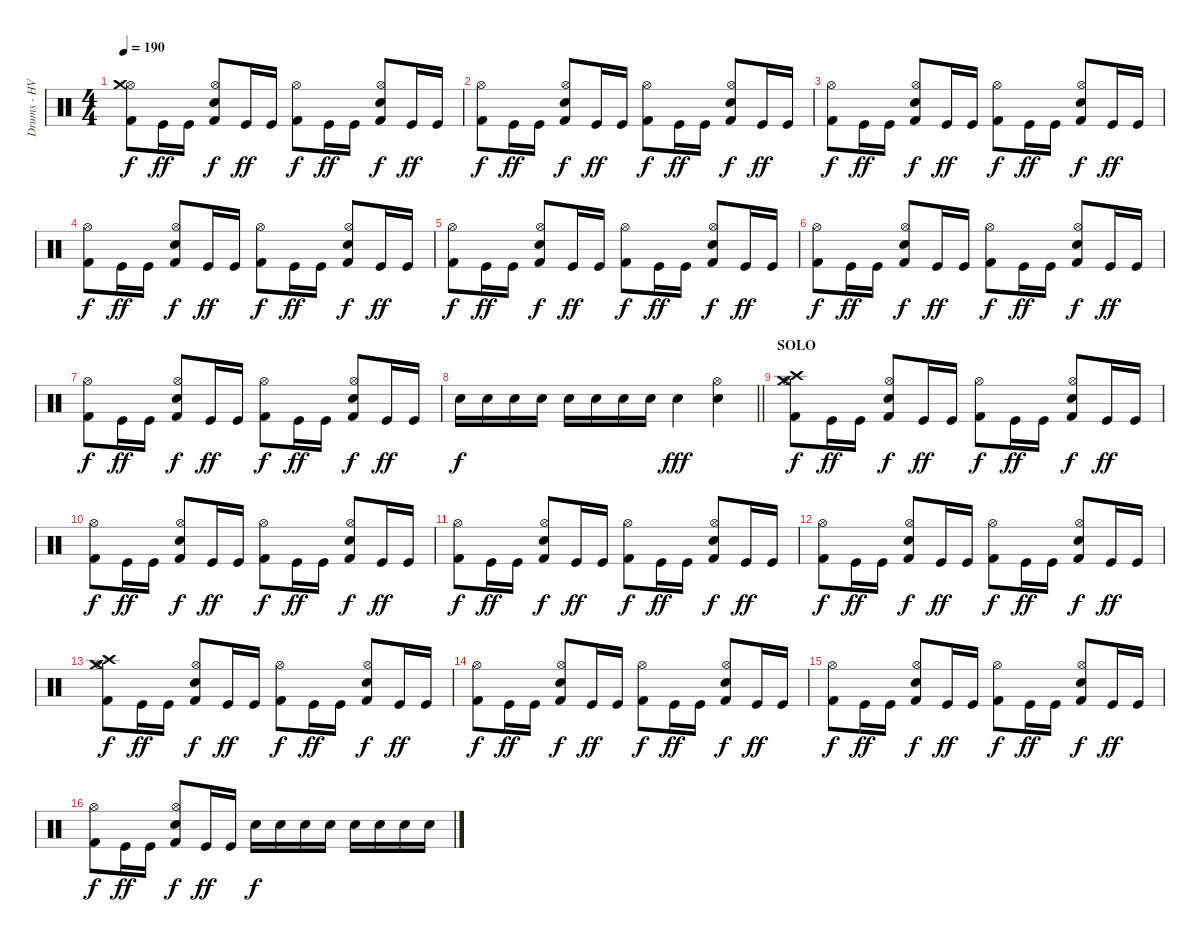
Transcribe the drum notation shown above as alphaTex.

\track ("Drums - HV NikiTon" "Drums - HV") {instrument percussion}
\staff {score}
\articulation defaults
\ts (4 4)
\tempo 190
\clef neutral
\ks c
("Kick (hit) 2" "Hi-Hat (open)" "Crash medium (hit)").8{dy f} "Kick (hit)".16{dy ff} "Kick (hit)".16 ("Electric Snare (hit)" "Kick (hit) 2" "Hi-Hat (open)").8{dy f} "Kick (hit)".16{dy ff} "Kick (hit)".16 ("Kick (hit) 2" "Hi-Hat (open)").8{dy f} "Kick (hit)".16{dy ff} "Kick (hit)".16 ("Electric Snare (hit)" "Kick (hit) 2" "Hi-Hat (open)").8{dy f} "Kick (hit)".16{dy ff} "Kick (hit)".16 |
("Kick (hit) 2" "Hi-Hat (open)").8{dy f} "Kick (hit)".16{dy ff} "Kick (hit)".16 ("Electric Snare (hit)" "Kick (hit) 2" "Hi-Hat (open)").8{dy f} "Kick (hit)".16{dy ff} "Kick (hit)".16 ("Kick (hit) 2" "Hi-Hat (open)").8{dy f} "Kick (hit)".16{dy ff} "Kick (hit)".16 ("Electric Snare (hit)" "Kick (hit) 2" "Hi-Hat (open)").8{dy f} "Kick (hit)".16{dy ff} "Kick (hit)".16 |
("Kick (hit) 2" "Hi-Hat (open)").8{dy f} "Kick (hit)".16{dy ff} "Kick (hit)".16 ("Electric Snare (hit)" "Kick (hit) 2" "Hi-Hat (open)").8{dy f} "Kick (hit)".16{dy ff} "Kick (hit)".16 ("Kick (hit) 2" "Hi-Hat (open)").8{dy f} "Kick (hit)".16{dy ff} "Kick (hit)".16 ("Electric Snare (hit)" "Kick (hit) 2" "Hi-Hat (open)").8{dy f} "Kick (hit)".16{dy ff} "Kick (hit)".16 |
("Kick (hit) 2" "Hi-Hat (open)").8{dy f} "Kick (hit)".16{dy ff} "Kick (hit)".16 ("Electric Snare (hit)" "Kick (hit) 2" "Hi-Hat (open)").8{dy f} "Kick (hit)".16{dy ff} "Kick (hit)".16 ("Kick (hit) 2" "Hi-Hat (open)").8{dy f} "Kick (hit)".16{dy ff} "Kick (hit)".16 ("Electric Snare (hit)" "Kick (hit) 2" "Hi-Hat (open)").8{dy f} "Kick (hit)".16{dy ff} "Kick (hit)".16 |
("Kick (hit) 2" "Hi-Hat (open)").8{dy f} "Kick (hit)".16{dy ff} "Kick (hit)".16 ("Electric Snare (hit)" "Kick (hit) 2" "Hi-Hat (open)").8{dy f} "Kick (hit)".16{dy ff} "Kick (hit)".16 ("Kick (hit) 2" "Hi-Hat (open)").8{dy f} "Kick (hit)".16{dy ff} "Kick (hit)".16 ("Electric Snare (hit)" "Kick (hit) 2" "Hi-Hat (open)").8{dy f} "Kick (hit)".16{dy ff} "Kick (hit)".16 |
("Kick (hit) 2" "Hi-Hat (open)").8{dy f} "Kick (hit)".16{dy ff} "Kick (hit)".16 ("Electric Snare (hit)" "Kick (hit) 2" "Hi-Hat (open)").8{dy f} "Kick (hit)".16{dy ff} "Kick (hit)".16 ("Kick (hit) 2" "Hi-Hat (open)").8{dy f} "Kick (hit)".16{dy ff} "Kick (hit)".16 ("Electric Snare (hit)" "Kick (hit) 2" "Hi-Hat (open)").8{dy f} "Kick (hit)".16{dy ff} "Kick (hit)".16 |
("Kick (hit) 2" "Hi-Hat (open)").8{dy f} "Kick (hit)".16{dy ff} "Kick (hit)".16 ("Electric Snare (hit)" "Kick (hit) 2" "Hi-Hat (open)").8{dy f} "Kick (hit)".16{dy ff} "Kick (hit)".16 ("Kick (hit) 2" "Hi-Hat (open)").8{dy f} "Kick (hit)".16{dy ff} "Kick (hit)".16 ("Electric Snare (hit)" "Kick (hit) 2" "Hi-Hat (open)").8{dy f} "Kick (hit)".16{dy ff} "Kick (hit)".16 |
\barLineRight lightlight "Electric Snare (hit)".16{dy f} "Electric Snare (hit)".16 "Electric Snare (hit)".16 "Electric Snare (hit)".16 "Electric Snare (hit)".16 "Electric Snare (hit)".16 "Electric Snare (hit)".16 "Electric Snare (hit)".16 "Electric Snare (hit)".4{dy fff}
("Hi-Hat (open)" "Snare (hit) 2").4 |
\section ("" "SOLO")
("Crash medium (hit)" "Kick (hit) 2" "Hi-Hat (open)" "Crash high (hit)").8{dy f} "Kick (hit)".16{dy ff} "Kick (hit)".16 ("Electric Snare (hit)" "Kick (hit) 2" "Hi-Hat (open)").8{dy f} "Kick (hit)".16{dy ff} "Kick (hit)".16 ("Kick (hit) 2" "Hi-Hat (open)").8{dy f} "Kick (hit)".16{dy ff} "Kick (hit)".16 ("Electric Snare (hit)" "Kick (hit) 2" "Hi-Hat (open)").8{dy f} "Kick (hit)".16{dy ff} "Kick (hit)".16 |
("Kick (hit) 2" "Hi-Hat (open)").8{dy f} "Kick (hit)".16{dy ff} "Kick (hit)".16 ("Electric Snare (hit)" "Kick (hit) 2" "Hi-Hat (open)").8{dy f} "Kick (hit)".16{dy ff} "Kick (hit)".16 ("Kick (hit) 2" "Hi-Hat (open)").8{dy f} "Kick (hit)".16{dy ff} "Kick (hit)".16 ("Electric Snare (hit)" "Kick (hit) 2" "Hi-Hat (open)").8{dy f} "Kick (hit)".16{dy ff} "Kick (hit)".16 |
("Kick (hit) 2" "Hi-Hat (open)").8{dy f} "Kick (hit)".16{dy ff} "Kick (hit)".16 ("Electric Snare (hit)" "Kick (hit) 2" "Hi-Hat (open)").8{dy f} "Kick (hit)".16{dy ff} "Kick (hit)".16 ("Kick (hit) 2" "Hi-Hat (open)").8{dy f} "Kick (hit)".16{dy ff} "Kick (hit)".16 ("Electric Snare (hit)" "Kick (hit) 2" "Hi-Hat (open)").8{dy f} "Kick (hit)".16{dy ff} "Kick (hit)".16 |
("Kick (hit) 2" "Hi-Hat (open)").8{dy f} "Kick (hit)".16{dy ff} "Kick (hit)".16 ("Electric Snare (hit)" "Kick (hit) 2" "Hi-Hat (open)").8{dy f} "Kick (hit)".16{dy ff} "Kick (hit)".16 ("Kick (hit) 2" "Hi-Hat (open)").8{dy f} "Kick (hit)".16{dy ff} "Kick (hit)".16 ("Electric Snare (hit)" "Kick (hit) 2" "Hi-Hat (open)").8{dy f} "Kick (hit)".16{dy ff} "Kick (hit)".16 |
("Crash medium (hit)" "Kick (hit) 2" "Hi-Hat (open)" "Crash high (hit)").8{dy f} "Kick (hit)".16{dy ff} "Kick (hit)".16 ("Electric Snare (hit)" "Kick (hit) 2" "Hi-Hat (open)").8{dy f} "Kick (hit)".16{dy ff} "Kick (hit)".16 ("Kick (hit) 2" "Hi-Hat (open)").8{dy f} "Kick (hit)".16{dy ff} "Kick (hit)".16 ("Electric Snare (hit)" "Kick (hit) 2" "Hi-Hat (open)").8{dy f} "Kick (hit)".16{dy ff} "Kick (hit)".16 |
("Kick (hit) 2" "Hi-Hat (open)").8{dy f} "Kick (hit)".16{dy ff} "Kick (hit)".16 ("Electric Snare (hit)" "Kick (hit) 2" "Hi-Hat (open)").8{dy f} "Kick (hit)".16{dy ff} "Kick (hit)".16 ("Kick (hit) 2" "Hi-Hat (open)").8{dy f} "Kick (hit)".16{dy ff} "Kick (hit)".16 ("Electric Snare (hit)" "Kick (hit) 2" "Hi-Hat (open)").8{dy f} "Kick (hit)".16{dy ff} "Kick (hit)".16 |
("Kick (hit) 2" "Hi-Hat (open)").8{dy f} "Kick (hit)".16{dy ff} "Kick (hit)".16 ("Electric Snare (hit)" "Kick (hit) 2" "Hi-Hat (open)").8{dy f} "Kick (hit)".16{dy ff} "Kick (hit)".16 ("Kick (hit) 2" "Hi-Hat (open)").8{dy f} "Kick (hit)".16{dy ff} "Kick (hit)".16 ("Electric Snare (hit)" "Kick (hit) 2" "Hi-Hat (open)").8{dy f} "Kick (hit)".16{dy ff} "Kick (hit)".16 |
("Kick (hit) 2" "Hi-Hat (open)").8{dy f} "Kick (hit)".16{dy ff} "Kick (hit)".16 ("Electric Snare (hit)" "Kick (hit) 2" "Hi-Hat (open)").8{dy f} "Kick (hit)".16{dy ff} "Kick (hit)".16 "Electric Snare (hit)".16{dy f} "Electric Snare (hit)".16 "Electric Snare (hit)".16 "Electric Snare (hit)".16 "Snare (hit) 2".16 "Snare (hit) 2".16 "Snare (hit) 2".16 "Snare (hit) 2".16
